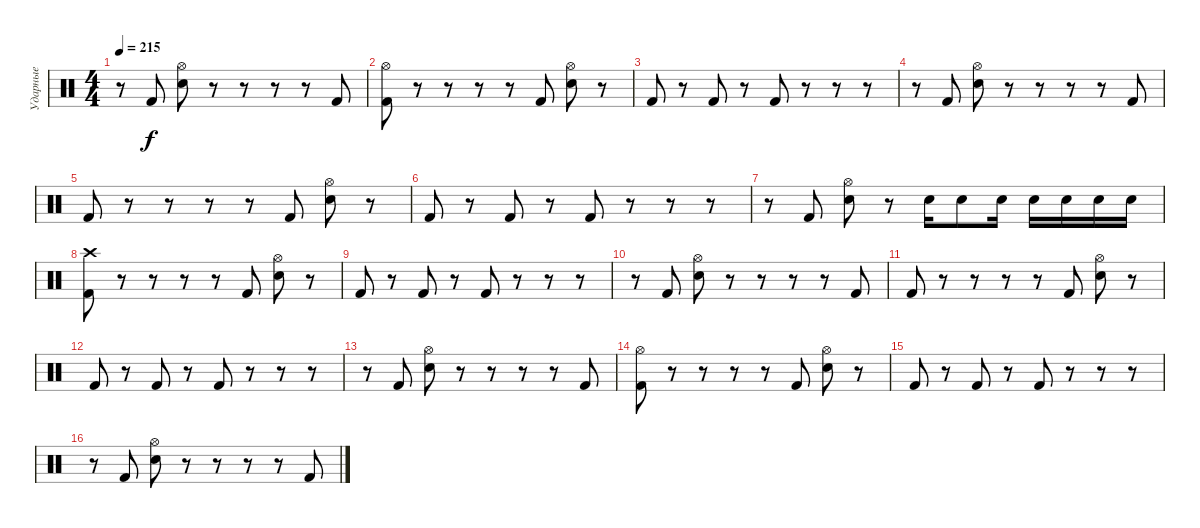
\track ("Ударные" "Ударные") {instrument percussion}
\staff {score}
\articulation defaults
\ts (4 4)
\tempo 215
\clef neutral
\ks c
r.8{dy f} "Kick (hit) 2".8 ("Hi-Hat (open)" "Snare (hit) 2").8 r.8 r.8 r.8 r.8 "Kick (hit) 2".8 |
("Hi-Hat (open)" "Kick (hit) 2").8 r.8 r.8 r.8 r.8 "Kick (hit) 2".8 ("Hi-Hat (open)" "Snare (hit) 2").8 r.8 |
"Kick (hit) 2".8 r.8 "Kick (hit) 2".8 r.8 "Kick (hit) 2".8 r.8 r.8 r.8 |
r.8 "Kick (hit) 2".8 ("Hi-Hat (open)" "Snare (hit) 2").8 r.8 r.8 r.8 r.8 "Kick (hit) 2".8 |
"Kick (hit) 2".8 r.8 r.8 r.8 r.8 "Kick (hit) 2".8 ("Hi-Hat (open)" "Snare (hit) 2").8 r.8 |
"Kick (hit) 2".8 r.8 "Kick (hit) 2".8 r.8 "Kick (hit) 2".8 r.8 r.8 r.8 |
r.8 "Kick (hit) 2".8 ("Hi-Hat (open)" "Snare (hit) 2").8 r.8 "Snare (hit) 2".16 "Snare (hit) 2".8 "Snare (hit) 2".16 "Snare (hit) 2".16 "Snare (hit) 2".16 "Snare (hit) 2".16 "Snare (hit) 2".16 |
("Crash high (hit)" "Kick (hit) 2").8 r.8 r.8 r.8 r.8 "Kick (hit) 2".8 ("Hi-Hat (open)" "Snare (hit) 2").8 r.8 |
"Kick (hit) 2".8 r.8 "Kick (hit) 2".8 r.8 "Kick (hit) 2".8 r.8 r.8 r.8 |
r.8 "Kick (hit) 2".8 ("Hi-Hat (open)" "Snare (hit) 2").8 r.8 r.8 r.8 r.8 "Kick (hit) 2".8 |
"Kick (hit) 2".8 r.8 r.8 r.8 r.8 "Kick (hit) 2".8 ("Hi-Hat (open)" "Snare (hit) 2").8 r.8 |
"Kick (hit) 2".8 r.8 "Kick (hit) 2".8 r.8 "Kick (hit) 2".8 r.8 r.8 r.8 |
r.8 "Kick (hit) 2".8 ("Hi-Hat (open)" "Snare (hit) 2").8 r.8 r.8 r.8 r.8 "Kick (hit) 2".8 |
("Hi-Hat (open)" "Kick (hit) 2").8 r.8 r.8 r.8 r.8 "Kick (hit) 2".8 ("Hi-Hat (open)" "Snare (hit) 2").8 r.8 |
"Kick (hit) 2".8 r.8 "Kick (hit) 2".8 r.8 "Kick (hit) 2".8 r.8 r.8 r.8 |
r.8 "Kick (hit) 2".8 ("Hi-Hat (open)" "Snare (hit) 2").8 r.8 r.8 r.8 r.8 "Kick (hit) 2".8
